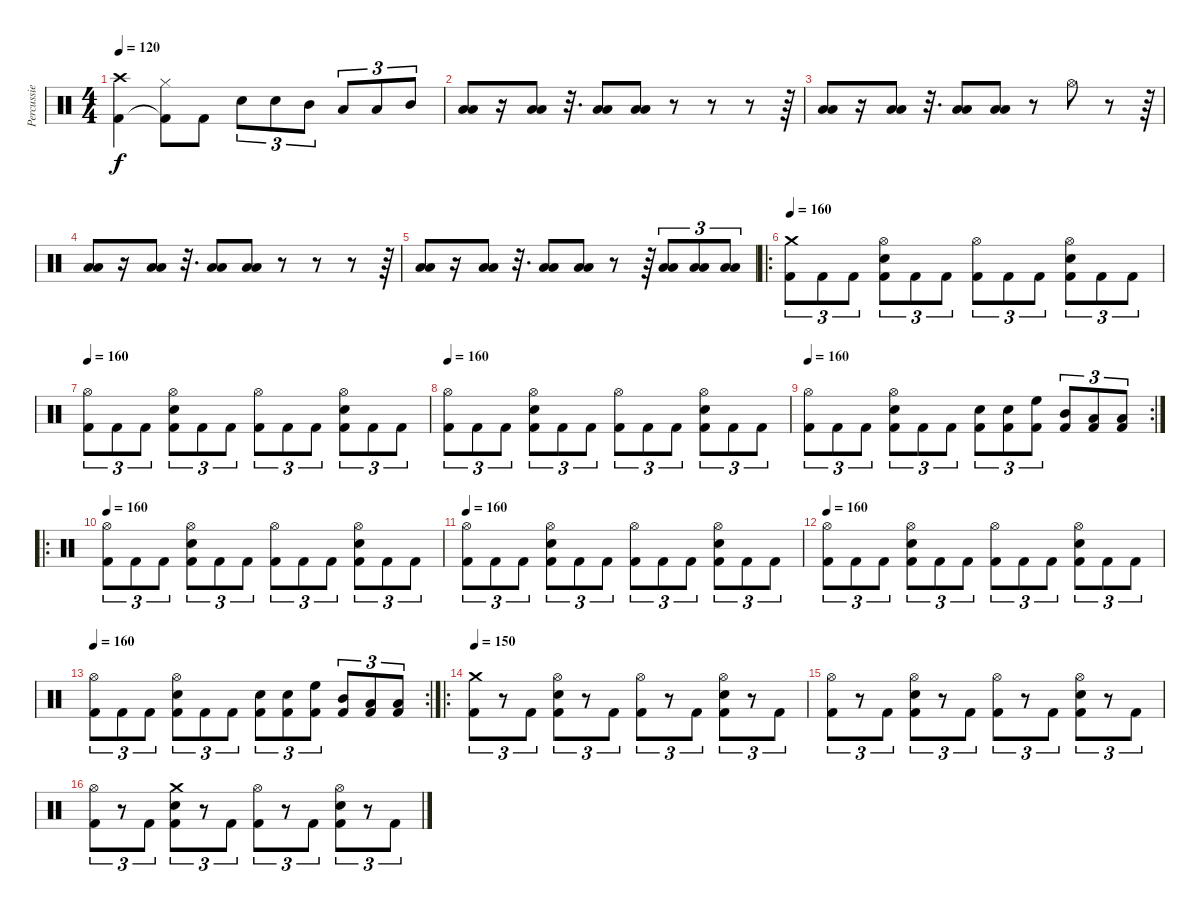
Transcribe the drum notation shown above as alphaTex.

\track ("Percussie" "Percussie") {instrument percussion}
\staff {score}
\articulation defaults
\ts (4 4)
\tempo 120
\clef neutral
\ks c
("Crash high (hit)" "Kick (hit) 2").4{dy f} ("Hi-Hat (closed)" "Kick (hit) 2"{t}).8 "Kick (hit) 2".8 "Snare (hit) 2".8{tu (3 2)} "Snare (hit) 2".8{tu (3 2)} "Mid Tom (hit)".8{tu (3 2)} "Low Tom (hit)".8{tu (3 2)} "Low Floor Tom (hit)".8{tu (3 2)} "Mid Tom (hit)".8{tu (3 2)} |
("Low Tom (hit)" "Low Floor Tom (hit)").8 r.16 ("Low Tom (hit)" "Low Floor Tom (hit)").8 r.32{d} ("Low Tom (hit)" "Low Floor Tom (hit)").8 ("Low Tom (hit)" "Low Floor Tom (hit)").8 r.8 r.8 r.8 r.64 |
("Low Tom (hit)" "Low Floor Tom (hit)").8 r.16 ("Low Tom (hit)" "Low Floor Tom (hit)").8 r.32{d} ("Low Tom (hit)" "Low Floor Tom (hit)").8 ("Low Tom (hit)" "Low Floor Tom (hit)").8 r.8 "Hi-Hat (open)".8 r.8 r.64 |
("Low Tom (hit)" "Low Floor Tom (hit)").8 r.16 ("Low Tom (hit)" "Low Floor Tom (hit)").8 r.32{d} ("Low Tom (hit)" "Low Floor Tom (hit)").8 ("Low Tom (hit)" "Low Floor Tom (hit)").8 r.8 r.8 r.8 r.64 |
("Low Tom (hit)" "Low Floor Tom (hit)").8 r.16 ("Low Tom (hit)" "Low Floor Tom (hit)").8 r.32{d} ("Low Tom (hit)" "Low Floor Tom (hit)").8 ("Low Tom (hit)" "Low Floor Tom (hit)").8 r.8 r.64 ("Low Tom (hit)" "Low Floor Tom (hit)").8{tu (3 2)} ("Low Tom (hit)" "Low Floor Tom (hit)").8{tu (3 2)} ("Low Tom (hit)" "Low Floor Tom (hit)").8{tu (3 2)} |
\ro
\tempo 160
("Crash medium (hit)" "Kick (hit) 2").8{tu (3 2)} "Kick (hit) 2".8{tu (3 2)} "Kick (hit) 2".8{tu (3 2)} ("Hi-Hat (open)" "Snare (hit) 2" "Kick (hit) 2").8{tu (3 2)} "Kick (hit) 2".8{tu (3 2)} "Kick (hit) 2".8{tu (3 2)} ("Hi-Hat (open)" "Kick (hit) 2").8{tu (3 2)} "Kick (hit) 2".8{tu (3 2)} "Kick (hit) 2".8{tu (3 2)} ("Hi-Hat (open)" "Snare (hit) 2" "Kick (hit) 2").8{tu (3 2)} "Kick (hit) 2".8{tu (3 2)} "Kick (hit) 2".8{tu (3 2)} |
\tempo 160
("Hi-Hat (open)" "Kick (hit) 2").8{tu (3 2)} "Kick (hit) 2".8{tu (3 2)} "Kick (hit) 2".8{tu (3 2)} ("Hi-Hat (open)" "Snare (hit) 2" "Kick (hit) 2").8{tu (3 2)} "Kick (hit) 2".8{tu (3 2)} "Kick (hit) 2".8{tu (3 2)} ("Hi-Hat (open)" "Kick (hit) 2").8{tu (3 2)} "Kick (hit) 2".8{tu (3 2)} "Kick (hit) 2".8{tu (3 2)} ("Hi-Hat (open)" "Snare (hit) 2" "Kick (hit) 2").8{tu (3 2)} "Kick (hit) 2".8{tu (3 2)} "Kick (hit) 2".8{tu (3 2)} |
\tempo 160
("Hi-Hat (open)" "Kick (hit) 2").8{tu (3 2)} "Kick (hit) 2".8{tu (3 2)} "Kick (hit) 2".8{tu (3 2)} ("Hi-Hat (open)" "Snare (hit) 2" "Kick (hit) 2").8{tu (3 2)} "Kick (hit) 2".8{tu (3 2)} "Kick (hit) 2".8{tu (3 2)} ("Hi-Hat (open)" "Kick (hit) 2").8{tu (3 2)} "Kick (hit) 2".8{tu (3 2)} "Kick (hit) 2".8{tu (3 2)} ("Hi-Hat (open)" "Snare (hit) 2" "Kick (hit) 2").8{tu (3 2)} "Kick (hit) 2".8{tu (3 2)} "Kick (hit) 2".8{tu (3 2)} |
\rc 2
\tempo 160
("Hi-Hat (open)" "Kick (hit) 2").8{tu (3 2)} "Kick (hit) 2".8{tu (3 2)} "Kick (hit) 2".8{tu (3 2)} ("Hi-Hat (open)" "Snare (hit) 2" "Kick (hit) 2").8{tu (3 2)} "Kick (hit) 2".8{tu (3 2)} "Kick (hit) 2".8{tu (3 2)} ("Snare (hit) 2" "Kick (hit) 2").8{tu (3 2)} ("Snare (hit) 2" "Kick (hit) 2").8{tu (3 2)} ("High Floor Tom (hit)" "Kick (hit) 2").8{tu (3 2)} ("Mid Tom (hit)" "Kick (hit) 2").8{tu (3 2)} ("Low Tom (hit)" "Kick (hit) 2").8{tu (3 2)} ("Low Floor Tom (hit)" "Kick (hit) 2").8{tu (3 2)} |
\ro
\tempo 160
("Hi-Hat (open)" "Kick (hit) 2").8{tu (3 2)} "Kick (hit) 2".8{tu (3 2)} "Kick (hit) 2".8{tu (3 2)} ("Hi-Hat (open)" "Snare (hit) 2" "Kick (hit) 2").8{tu (3 2)} "Kick (hit) 2".8{tu (3 2)} "Kick (hit) 2".8{tu (3 2)} ("Hi-Hat (open)" "Kick (hit) 2").8{tu (3 2)} "Kick (hit) 2".8{tu (3 2)} "Kick (hit) 2".8{tu (3 2)} ("Hi-Hat (open)" "Snare (hit) 2" "Kick (hit) 2").8{tu (3 2)} "Kick (hit) 2".8{tu (3 2)} "Kick (hit) 2".8{tu (3 2)} |
\tempo 160
("Hi-Hat (open)" "Kick (hit) 2").8{tu (3 2)} "Kick (hit) 2".8{tu (3 2)} "Kick (hit) 2".8{tu (3 2)} ("Hi-Hat (open)" "Snare (hit) 2" "Kick (hit) 2").8{tu (3 2)} "Kick (hit) 2".8{tu (3 2)} "Kick (hit) 2".8{tu (3 2)} ("Hi-Hat (open)" "Kick (hit) 2").8{tu (3 2)} "Kick (hit) 2".8{tu (3 2)} "Kick (hit) 2".8{tu (3 2)} ("Hi-Hat (open)" "Snare (hit) 2" "Kick (hit) 2").8{tu (3 2)} "Kick (hit) 2".8{tu (3 2)} "Kick (hit) 2".8{tu (3 2)} |
\tempo 160
("Hi-Hat (open)" "Kick (hit) 2").8{tu (3 2)} "Kick (hit) 2".8{tu (3 2)} "Kick (hit) 2".8{tu (3 2)} ("Hi-Hat (open)" "Snare (hit) 2" "Kick (hit) 2").8{tu (3 2)} "Kick (hit) 2".8{tu (3 2)} "Kick (hit) 2".8{tu (3 2)} ("Hi-Hat (open)" "Kick (hit) 2").8{tu (3 2)} "Kick (hit) 2".8{tu (3 2)} "Kick (hit) 2".8{tu (3 2)} ("Hi-Hat (open)" "Snare (hit) 2" "Kick (hit) 2").8{tu (3 2)} "Kick (hit) 2".8{tu (3 2)} "Kick (hit) 2".8{tu (3 2)} |
\rc 2
\tempo 160
("Hi-Hat (open)" "Kick (hit) 2").8{tu (3 2)} "Kick (hit) 2".8{tu (3 2)} "Kick (hit) 2".8{tu (3 2)} ("Hi-Hat (open)" "Snare (hit) 2" "Kick (hit) 2").8{tu (3 2)} "Kick (hit) 2".8{tu (3 2)} "Kick (hit) 2".8{tu (3 2)} ("Snare (hit) 2" "Kick (hit) 2").8{tu (3 2)} ("Snare (hit) 2" "Kick (hit) 2").8{tu (3 2)} ("High Floor Tom (hit)" "Kick (hit) 2").8{tu (3 2)} ("Mid Tom (hit)" "Kick (hit) 2").8{tu (3 2)} ("Low Tom (hit)" "Kick (hit) 2").8{tu (3 2)} ("Low Floor Tom (hit)" "Kick (hit) 2").8{tu (3 2)} |
\ro
\tempo 150
("Crash medium (hit)" "Kick (hit) 2").8{tu (3 2)} r.8{tu (3 2)} "Kick (hit) 2".8{tu (3 2)} ("Hi-Hat (open)" "Snare (hit) 2" "Kick (hit) 2").8{tu (3 2)} r.8{tu (3 2)} "Kick (hit) 2".8{tu (3 2)} ("Hi-Hat (open)" "Kick (hit) 2").8{tu (3 2)} r.8{tu (3 2)} "Kick (hit) 2".8{tu (3 2)} ("Hi-Hat (open)" "Snare (hit) 2" "Kick (hit) 2").8{tu (3 2)} r.8{tu (3 2)} "Kick (hit) 2".8{tu (3 2)} |
("Hi-Hat (open)" "Kick (hit) 2").8{tu (3 2)} r.8{tu (3 2)} "Kick (hit) 2".8{tu (3 2)} ("Hi-Hat (open)" "Snare (hit) 2" "Kick (hit) 2").8{tu (3 2)} r.8{tu (3 2)} "Kick (hit) 2".8{tu (3 2)} ("Hi-Hat (open)" "Kick (hit) 2").8{tu (3 2)} r.8{tu (3 2)} "Kick (hit) 2".8{tu (3 2)} ("Hi-Hat (open)" "Snare (hit) 2" "Kick (hit) 2").8{tu (3 2)} r.8{tu (3 2)} "Kick (hit) 2".8{tu (3 2)} |
("Hi-Hat (open)" "Kick (hit) 2").8{tu (3 2)} r.8{tu (3 2)} "Kick (hit) 2".8{tu (3 2)} ("Crash medium (hit)" "Snare (hit) 2" "Kick (hit) 2").8{tu (3 2)} r.8{tu (3 2)} "Kick (hit) 2".8{tu (3 2)} ("Hi-Hat (open)" "Kick (hit) 2").8{tu (3 2)} r.8{tu (3 2)} "Kick (hit) 2".8{tu (3 2)} ("Hi-Hat (open)" "Snare (hit) 2" "Kick (hit) 2").8{tu (3 2)} r.8{tu (3 2)} "Kick (hit) 2".8{tu (3 2)}
